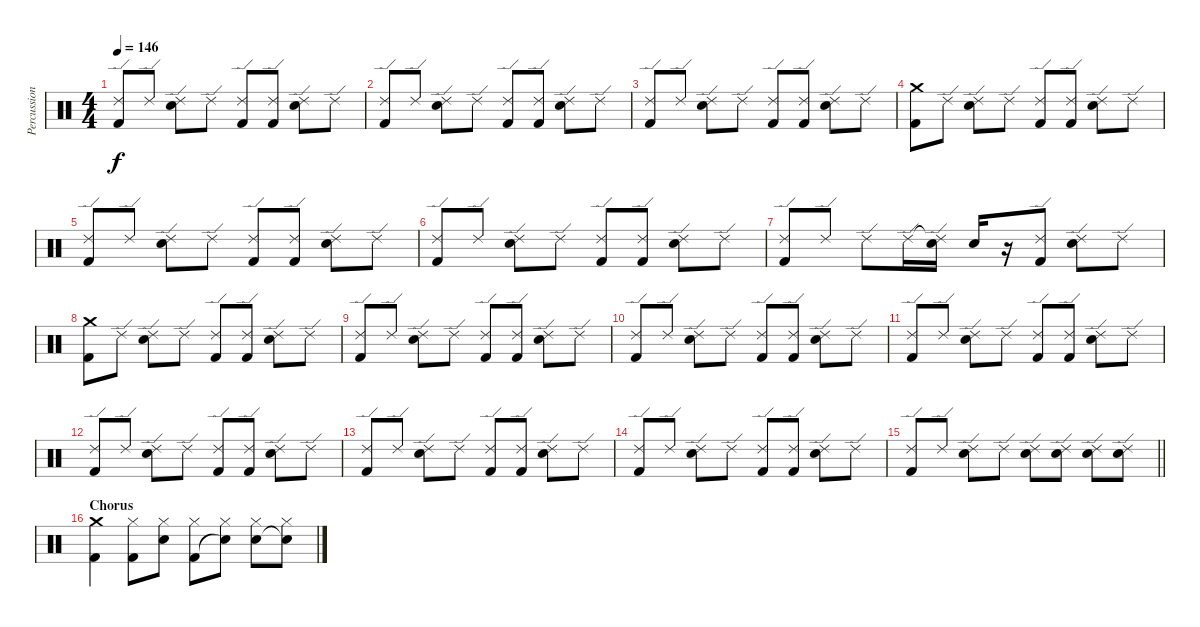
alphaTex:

\track ("Percussion" "Percussion") {instrument percussion}
\staff {score}
\articulation defaults
\ts (4 4)
\tempo 146
\clef neutral
\ks c
("Ride (edge) 2" "Kick (hit) 2").8{dy f} "Ride (edge) 2".8 ("Ride (edge) 2" "Snare (hit) 2").8 "Ride (edge) 2".8 ("Ride (edge) 2" "Kick (hit) 2").8 ("Ride (edge) 2" "Kick (hit) 2").8 ("Ride (edge) 2" "Snare (hit) 2").8 "Ride (edge) 2".8 |
("Ride (edge) 2" "Kick (hit) 2").8 "Ride (edge) 2".8 ("Ride (edge) 2" "Snare (hit) 2").8 "Ride (edge) 2".8 ("Ride (edge) 2" "Kick (hit) 2").8 ("Ride (edge) 2" "Kick (hit) 2").8 ("Ride (edge) 2" "Snare (hit) 2").8 "Ride (edge) 2".8 |
("Ride (edge) 2" "Kick (hit) 2").8 "Ride (edge) 2".8 ("Ride (edge) 2" "Snare (hit) 2").8 "Ride (edge) 2".8 ("Ride (edge) 2" "Kick (hit) 2").8 ("Ride (edge) 2" "Kick (hit) 2").8 ("Ride (edge) 2" "Snare (hit) 2").8 "Ride (edge) 2".8 |
("Crash medium (hit)" "Kick (hit) 2").8 "Ride (edge) 2".8 ("Ride (edge) 2" "Snare (hit) 2").8 "Ride (edge) 2".8 ("Ride (edge) 2" "Kick (hit) 2").8 ("Ride (edge) 2" "Kick (hit) 2").8 ("Ride (edge) 2" "Snare (hit) 2").8 "Ride (edge) 2".8 |
("Ride (edge) 2" "Kick (hit) 2").8 "Ride (edge) 2".8 ("Ride (edge) 2" "Snare (hit) 2").8 "Ride (edge) 2".8 ("Ride (edge) 2" "Kick (hit) 2").8 ("Ride (edge) 2" "Kick (hit) 2").8 ("Ride (edge) 2" "Snare (hit) 2").8 "Ride (edge) 2".8 |
("Ride (edge) 2" "Kick (hit) 2").8 "Ride (edge) 2".8 ("Ride (edge) 2" "Snare (hit) 2").8 "Ride (edge) 2".8 ("Ride (edge) 2" "Kick (hit) 2").8 ("Ride (edge) 2" "Kick (hit) 2").8 ("Ride (edge) 2" "Snare (hit) 2").8 "Ride (edge) 2".8 |
("Ride (edge) 2" "Kick (hit) 2").8 "Ride (edge) 2".8 "Ride (edge) 2".8 "Ride (edge) 2".16 ("Ride (edge) 2"{t} "Snare (hit) 2").16 "Snare (hit) 2".16 r.16 ("Ride (edge) 2" "Kick (hit) 2").8 ("Ride (edge) 2" "Snare (hit) 2").8 "Ride (edge) 2".8 |
("Crash medium (hit)" "Kick (hit) 2").8 "Ride (edge) 2".8 ("Ride (edge) 2" "Snare (hit) 2").8 "Ride (edge) 2".8 ("Ride (edge) 2" "Kick (hit) 2").8 ("Ride (edge) 2" "Kick (hit) 2").8 ("Ride (edge) 2" "Snare (hit) 2").8 "Ride (edge) 2".8 |
("Ride (edge) 2" "Kick (hit) 2").8 "Ride (edge) 2".8 ("Ride (edge) 2" "Snare (hit) 2").8 "Ride (edge) 2".8 ("Ride (edge) 2" "Kick (hit) 2").8 ("Ride (edge) 2" "Kick (hit) 2").8 ("Ride (edge) 2" "Snare (hit) 2").8 "Ride (edge) 2".8 |
("Ride (edge) 2" "Kick (hit) 2").8 "Ride (edge) 2".8 ("Ride (edge) 2" "Snare (hit) 2").8 "Ride (edge) 2".8 ("Ride (edge) 2" "Kick (hit) 2").8 ("Ride (edge) 2" "Kick (hit) 2").8 ("Ride (edge) 2" "Snare (hit) 2").8 "Ride (edge) 2".8 |
("Ride (edge) 2" "Kick (hit) 2").8 "Ride (edge) 2".8 ("Ride (edge) 2" "Snare (hit) 2").8 "Ride (edge) 2".8 ("Ride (edge) 2" "Kick (hit) 2").8 ("Ride (edge) 2" "Kick (hit) 2").8 ("Ride (edge) 2" "Snare (hit) 2").8 "Ride (edge) 2".8 |
("Ride (edge) 2" "Kick (hit) 2").8 "Ride (edge) 2".8 ("Ride (edge) 2" "Snare (hit) 2").8 "Ride (edge) 2".8 ("Ride (edge) 2" "Kick (hit) 2").8 ("Ride (edge) 2" "Kick (hit) 2").8 ("Ride (edge) 2" "Snare (hit) 2").8 "Ride (edge) 2".8 |
("Ride (edge) 2" "Kick (hit) 2").8 "Ride (edge) 2".8 ("Ride (edge) 2" "Snare (hit) 2").8 "Ride (edge) 2".8 ("Ride (edge) 2" "Kick (hit) 2").8 ("Ride (edge) 2" "Kick (hit) 2").8 ("Ride (edge) 2" "Snare (hit) 2").8 "Ride (edge) 2".8 |
("Ride (edge) 2" "Kick (hit) 2").8 "Ride (edge) 2".8 ("Ride (edge) 2" "Snare (hit) 2").8 "Ride (edge) 2".8 ("Ride (edge) 2" "Kick (hit) 2").8 ("Ride (edge) 2" "Kick (hit) 2").8 ("Ride (edge) 2" "Snare (hit) 2").8 "Ride (edge) 2".8 |
\barLineRight lightlight
("Ride (edge) 2" "Kick (hit) 2").8 "Ride (edge) 2".8 ("Ride (edge) 2" "Snare (hit) 2").8 "Ride (edge) 2".8 ("Ride (edge) 2" "Snare (hit) 2").8 ("Ride (edge) 2" "Snare (hit) 2").8 ("Ride (edge) 2" "Snare (hit) 2").8 ("Ride (edge) 2" "Snare (hit) 2").8 |
\section ("" "Chorus")
("Crash medium (hit)" "Kick (hit) 2").4 ("Hi-Hat (closed)" "Kick (hit) 2").8 ("Hi-Hat (closed)" "Snare (hit) 2").8 ("Hi-Hat (closed)" "Kick (hit) 2").8 ("Hi-Hat (closed)" "Snare (hit)"{t}).8 ("Hi-Hat (closed)" "Snare (hit) 2").8 ("Hi-Hat (closed)" "Snare (hit)"{t}).8
